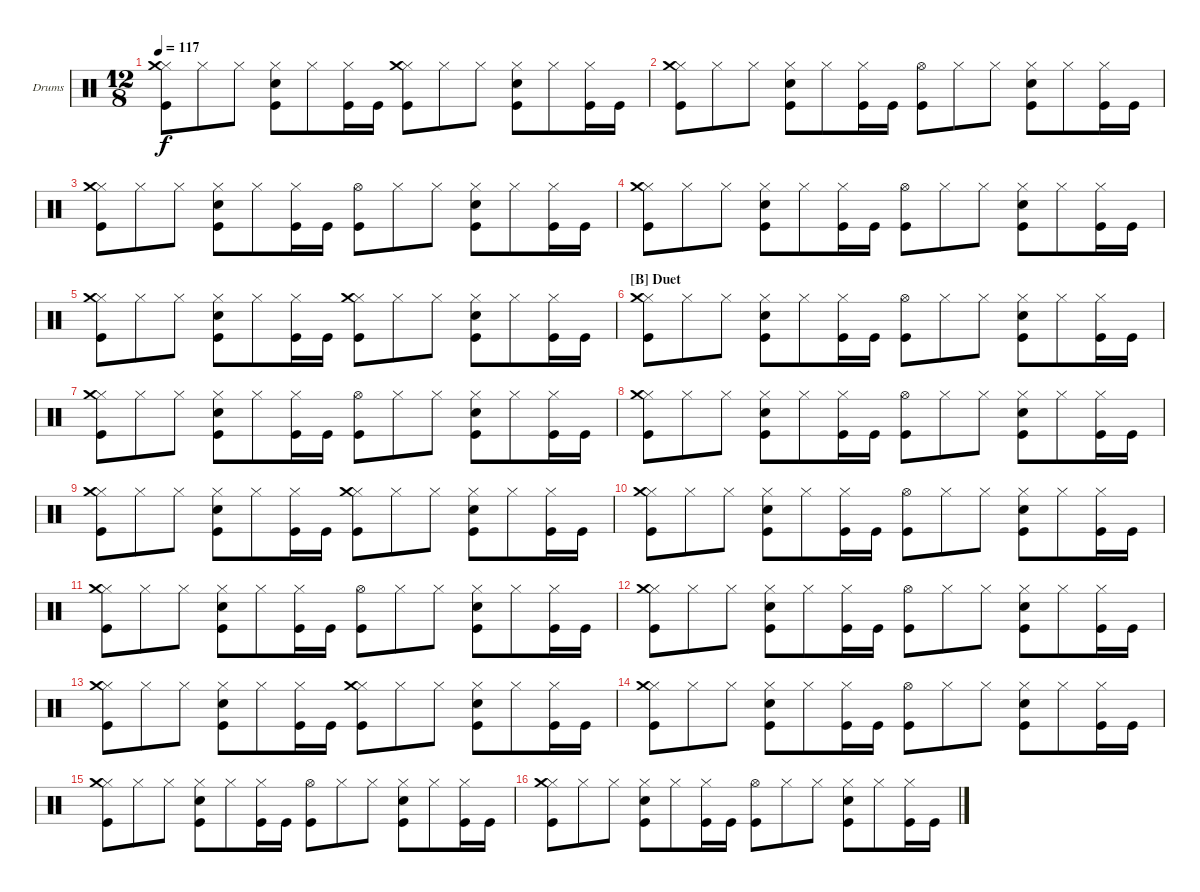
\defaultSystemsLayout 4
\bracketExtendMode groupsimilarinstruments
\firstSystemTrackNameOrientation horizontal
\otherSystemsTrackNameOrientation horizontal
\track ("Drumkit" "Drums") {instrument percussion}
\staff {score}
\articulation defaults
\ts (12 8)
\tempo 117
\clef neutral
\scale
0.333333
\ks c
("Kick (hit)" "Hi-Hat (closed)" "Crash medium (hit)").8{dy f} "Hi-Hat (closed)".8 "Hi-Hat (closed)".8 ("Kick (hit)" "Snare (hit) 2" "Hi-Hat (closed)").8 "Hi-Hat (closed)".8 ("Kick (hit)" "Hi-Hat (closed)").16 "Kick (hit)".16 ("Kick (hit)" "Hi-Hat (closed)" "Crash medium (hit)").8 "Hi-Hat (closed)".8 "Hi-Hat (closed)".8 ("Kick (hit)" "Snare (hit) 2" "Hi-Hat (closed)").8 "Hi-Hat (closed)".8 ("Kick (hit)" "Hi-Hat (closed)").16 "Kick (hit)".16 |
\scale
0.333333 ("Kick (hit)" "Hi-Hat (closed)" "Crash medium (hit)").8 "Hi-Hat (closed)".8 "Hi-Hat (closed)".8 ("Kick (hit)" "Snare (hit) 2" "Hi-Hat (closed)").8 "Hi-Hat (closed)".8 ("Kick (hit)" "Hi-Hat (closed)").16 "Kick (hit)".16 ("Kick (hit)" "Hi-Hat (open)").8 "Hi-Hat (closed)".8 "Hi-Hat (closed)".8 ("Kick (hit)" "Snare (hit) 2" "Hi-Hat (closed)").8 "Hi-Hat (closed)".8 ("Kick (hit)" "Hi-Hat (closed)").16 "Kick (hit)".16 |
\scale
0.333333 ("Kick (hit)" "Hi-Hat (closed)" "Crash medium (hit)").8 "Hi-Hat (closed)".8 "Hi-Hat (closed)".8 ("Kick (hit)" "Snare (hit) 2" "Hi-Hat (closed)").8 "Hi-Hat (closed)".8 ("Kick (hit)" "Hi-Hat (closed)").16 "Kick (hit)".16 ("Kick (hit)" "Hi-Hat (open)").8 "Hi-Hat (closed)".8 "Hi-Hat (closed)".8 ("Kick (hit)" "Snare (hit) 2" "Hi-Hat (closed)").8 "Hi-Hat (closed)".8 ("Kick (hit)" "Hi-Hat (closed)").16 "Kick (hit)".16 |
\scale
0.333333 ("Kick (hit)" "Hi-Hat (closed)" "Crash medium (hit)").8 "Hi-Hat (closed)".8 "Hi-Hat (closed)".8 ("Kick (hit)" "Snare (hit) 2" "Hi-Hat (closed)").8 "Hi-Hat (closed)".8 ("Kick (hit)" "Hi-Hat (closed)").16 "Kick (hit)".16 ("Kick (hit)" "Hi-Hat (open)").8 "Hi-Hat (closed)".8 "Hi-Hat (closed)".8 ("Kick (hit)" "Snare (hit) 2" "Hi-Hat (closed)").8 "Hi-Hat (closed)".8 ("Kick (hit)" "Hi-Hat (closed)").16 "Kick (hit)".16 |
\scale
0.333333 ("Kick (hit)" "Hi-Hat (closed)" "Crash medium (hit)").8 "Hi-Hat (closed)".8 "Hi-Hat (closed)".8 ("Kick (hit)" "Snare (hit) 2" "Hi-Hat (closed)").8 "Hi-Hat (closed)".8 ("Kick (hit)" "Hi-Hat (closed)").16 "Kick (hit)".16 ("Kick (hit)" "Hi-Hat (closed)" "Crash medium (hit)").8 "Hi-Hat (closed)".8 "Hi-Hat (closed)".8 ("Kick (hit)" "Snare (hit) 2" "Hi-Hat (closed)").8 "Hi-Hat (closed)".8 ("Kick (hit)" "Hi-Hat (closed)").16 "Kick (hit)".16 |
\section ("B" "Duet")
("Kick (hit)" "Hi-Hat (closed)" "Crash medium (hit)").8 "Hi-Hat (closed)".8 "Hi-Hat (closed)".8 ("Kick (hit)" "Snare (hit) 2" "Hi-Hat (closed)").8 "Hi-Hat (closed)".8 ("Kick (hit)" "Hi-Hat (closed)").16 "Kick (hit)".16 ("Kick (hit)" "Hi-Hat (open)").8 "Hi-Hat (closed)".8 "Hi-Hat (closed)".8 ("Kick (hit)" "Snare (hit) 2" "Hi-Hat (closed)").8 "Hi-Hat (closed)".8 ("Kick (hit)" "Hi-Hat (closed)").16 "Kick (hit)".16 |
("Kick (hit)" "Hi-Hat (closed)" "Crash medium (hit)").8 "Hi-Hat (closed)".8 "Hi-Hat (closed)".8 ("Kick (hit)" "Snare (hit) 2" "Hi-Hat (closed)").8 "Hi-Hat (closed)".8 ("Kick (hit)" "Hi-Hat (closed)").16 "Kick (hit)".16 ("Kick (hit)" "Hi-Hat (open)").8 "Hi-Hat (closed)".8 "Hi-Hat (closed)".8 ("Kick (hit)" "Snare (hit) 2" "Hi-Hat (closed)").8 "Hi-Hat (closed)".8 ("Kick (hit)" "Hi-Hat (closed)").16 "Kick (hit)".16 |
("Kick (hit)" "Hi-Hat (closed)" "Crash medium (hit)").8 "Hi-Hat (closed)".8 "Hi-Hat (closed)".8 ("Kick (hit)" "Snare (hit) 2" "Hi-Hat (closed)").8 "Hi-Hat (closed)".8 ("Kick (hit)" "Hi-Hat (closed)").16 "Kick (hit)".16 ("Kick (hit)" "Hi-Hat (open)").8 "Hi-Hat (closed)".8 "Hi-Hat (closed)".8 ("Kick (hit)" "Snare (hit) 2" "Hi-Hat (closed)").8 "Hi-Hat (closed)".8 ("Kick (hit)" "Hi-Hat (closed)").16 "Kick (hit)".16 |
("Kick (hit)" "Hi-Hat (closed)" "Crash medium (hit)").8 "Hi-Hat (closed)".8 "Hi-Hat (closed)".8 ("Kick (hit)" "Snare (hit) 2" "Hi-Hat (closed)").8 "Hi-Hat (closed)".8 ("Kick (hit)" "Hi-Hat (closed)").16 "Kick (hit)".16 ("Kick (hit)" "Hi-Hat (closed)" "Crash medium (hit)").8 "Hi-Hat (closed)".8 "Hi-Hat (closed)".8 ("Kick (hit)" "Snare (hit) 2" "Hi-Hat (closed)").8 "Hi-Hat (closed)".8 ("Kick (hit)" "Hi-Hat (closed)").16 "Kick (hit)".16 |
("Kick (hit)" "Hi-Hat (closed)" "Crash medium (hit)").8 "Hi-Hat (closed)".8 "Hi-Hat (closed)".8 ("Kick (hit)" "Snare (hit) 2" "Hi-Hat (closed)").8 "Hi-Hat (closed)".8 ("Kick (hit)" "Hi-Hat (closed)").16 "Kick (hit)".16 ("Kick (hit)" "Hi-Hat (open)").8 "Hi-Hat (closed)".8 "Hi-Hat (closed)".8 ("Kick (hit)" "Snare (hit) 2" "Hi-Hat (closed)").8 "Hi-Hat (closed)".8 ("Kick (hit)" "Hi-Hat (closed)").16 "Kick (hit)".16 |
("Kick (hit)" "Hi-Hat (closed)" "Crash medium (hit)").8 "Hi-Hat (closed)".8 "Hi-Hat (closed)".8 ("Kick (hit)" "Snare (hit) 2" "Hi-Hat (closed)").8 "Hi-Hat (closed)".8 ("Kick (hit)" "Hi-Hat (closed)").16 "Kick (hit)".16 ("Kick (hit)" "Hi-Hat (open)").8 "Hi-Hat (closed)".8 "Hi-Hat (closed)".8 ("Kick (hit)" "Snare (hit) 2" "Hi-Hat (closed)").8 "Hi-Hat (closed)".8 ("Kick (hit)" "Hi-Hat (closed)").16 "Kick (hit)".16 |
("Kick (hit)" "Hi-Hat (closed)" "Crash medium (hit)").8 "Hi-Hat (closed)".8 "Hi-Hat (closed)".8 ("Kick (hit)" "Snare (hit) 2" "Hi-Hat (closed)").8 "Hi-Hat (closed)".8 ("Kick (hit)" "Hi-Hat (closed)").16 "Kick (hit)".16 ("Kick (hit)" "Hi-Hat (open)").8 "Hi-Hat (closed)".8 "Hi-Hat (closed)".8 ("Kick (hit)" "Snare (hit) 2" "Hi-Hat (closed)").8 "Hi-Hat (closed)".8 ("Kick (hit)" "Hi-Hat (closed)").16 "Kick (hit)".16 |
("Kick (hit)" "Hi-Hat (closed)" "Crash medium (hit)").8 "Hi-Hat (closed)".8 "Hi-Hat (closed)".8 ("Kick (hit)" "Snare (hit) 2" "Hi-Hat (closed)").8 "Hi-Hat (closed)".8 ("Kick (hit)" "Hi-Hat (closed)").16 "Kick (hit)".16 ("Kick (hit)" "Hi-Hat (closed)" "Crash medium (hit)").8 "Hi-Hat (closed)".8 "Hi-Hat (closed)".8 ("Kick (hit)" "Snare (hit) 2" "Hi-Hat (closed)").8 "Hi-Hat (closed)".8 ("Kick (hit)" "Hi-Hat (closed)").16 "Kick (hit)".16 |
("Kick (hit)" "Hi-Hat (closed)" "Crash medium (hit)").8 "Hi-Hat (closed)".8 "Hi-Hat (closed)".8 ("Kick (hit)" "Snare (hit) 2" "Hi-Hat (closed)").8 "Hi-Hat (closed)".8 ("Kick (hit)" "Hi-Hat (closed)").16 "Kick (hit)".16 ("Kick (hit)" "Hi-Hat (open)").8 "Hi-Hat (closed)".8 "Hi-Hat (closed)".8 ("Kick (hit)" "Snare (hit) 2" "Hi-Hat (closed)").8 "Hi-Hat (closed)".8 ("Kick (hit)" "Hi-Hat (closed)").16 "Kick (hit)".16 |
("Kick (hit)" "Hi-Hat (closed)" "Crash medium (hit)").8 "Hi-Hat (closed)".8 "Hi-Hat (closed)".8 ("Kick (hit)" "Snare (hit) 2" "Hi-Hat (closed)").8 "Hi-Hat (closed)".8 ("Kick (hit)" "Hi-Hat (closed)").16 "Kick (hit)".16 ("Kick (hit)" "Hi-Hat (open)").8 "Hi-Hat (closed)".8 "Hi-Hat (closed)".8 ("Kick (hit)" "Snare (hit) 2" "Hi-Hat (closed)").8 "Hi-Hat (closed)".8 ("Kick (hit)" "Hi-Hat (closed)").16 "Kick (hit)".16 |
("Kick (hit)" "Hi-Hat (closed)" "Crash medium (hit)").8 "Hi-Hat (closed)".8 "Hi-Hat (closed)".8 ("Kick (hit)" "Snare (hit) 2" "Hi-Hat (closed)").8 "Hi-Hat (closed)".8 ("Kick (hit)" "Hi-Hat (closed)").16 "Kick (hit)".16 ("Kick (hit)" "Hi-Hat (open)").8 "Hi-Hat (closed)".8 "Hi-Hat (closed)".8 ("Kick (hit)" "Snare (hit) 2" "Hi-Hat (closed)").8 "Hi-Hat (closed)".8 ("Kick (hit)" "Hi-Hat (closed)").16 "Kick (hit)".16
